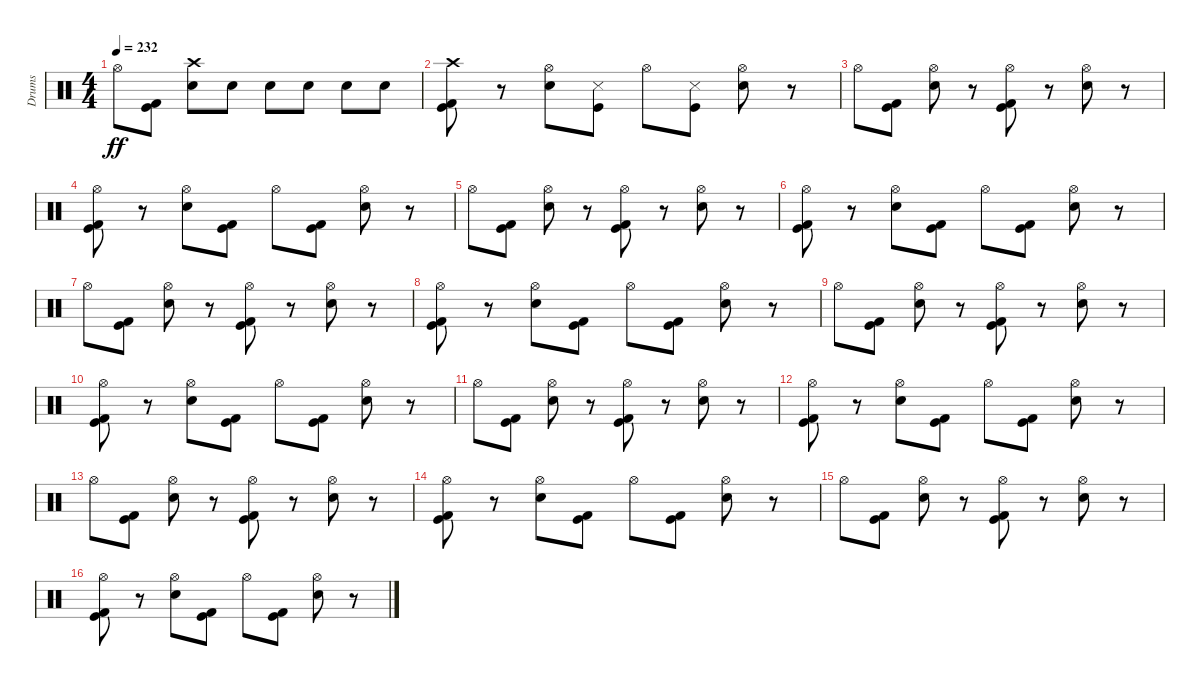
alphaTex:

\track ("Drums" "Drums") {instrument percussion}
\staff {score}
\articulation defaults
\ts (4 4)
\tempo 232
\clef neutral
\ks c "Hi-Hat (open)".8{dy ff}
("Kick (hit)" "Kick (hit) 2").8 ("Snare (hit) 2" "Crash high (hit)").8 "Snare (hit) 2".8 "Snare (hit) 2".8 "Snare (hit) 2".8 "Snare (hit) 2".8 "Snare (hit) 2".8 |
("Kick (hit)" "Kick (hit) 2" "Crash high (hit)").8 r.8 ("Snare (hit) 2" "Hi-Hat (open)").8 ("Kick (hit)" "Snare (side stick) 3").8 "Hi-Hat (open)".8 ("Kick (hit)" "Snare (side stick) 3").8 ("Snare (hit) 2" "Hi-Hat (open)").8 r.8 |
"Hi-Hat (open)".8 ("Kick (hit)" "Kick (hit) 2").8 ("Snare (hit) 2" "Hi-Hat (open)").8 r.8 ("Kick (hit)" "Kick (hit) 2" "Hi-Hat (open)").8 r.8 ("Snare (hit) 2" "Hi-Hat (open)").8 r.8 |
("Kick (hit)" "Kick (hit) 2" "Hi-Hat (open)").8 r.8 ("Snare (hit) 2" "Hi-Hat (open)").8 ("Kick (hit)" "Kick (hit) 2").8 "Hi-Hat (open)".8 ("Kick (hit)" "Kick (hit) 2").8 ("Snare (hit) 2" "Hi-Hat (open)").8 r.8 |
"Hi-Hat (open)".8 ("Kick (hit)" "Kick (hit) 2").8 ("Snare (hit) 2" "Hi-Hat (open)").8 r.8 ("Kick (hit)" "Kick (hit) 2" "Hi-Hat (open)").8 r.8 ("Snare (hit) 2" "Hi-Hat (open)").8 r.8 |
("Kick (hit)" "Kick (hit) 2" "Hi-Hat (open)").8 r.8 ("Snare (hit) 2" "Hi-Hat (open)").8 ("Kick (hit)" "Kick (hit) 2").8 "Hi-Hat (open)".8 ("Kick (hit)" "Kick (hit) 2").8 ("Snare (hit) 2" "Hi-Hat (open)").8 r.8 |
"Hi-Hat (open)".8 ("Kick (hit)" "Kick (hit) 2").8 ("Snare (hit) 2" "Hi-Hat (open)").8 r.8 ("Kick (hit)" "Kick (hit) 2" "Hi-Hat (open)").8 r.8 ("Snare (hit) 2" "Hi-Hat (open)").8 r.8 |
("Kick (hit)" "Kick (hit) 2" "Hi-Hat (open)").8 r.8 ("Snare (hit) 2" "Hi-Hat (open)").8 ("Kick (hit)" "Kick (hit) 2").8 "Hi-Hat (open)".8 ("Kick (hit)" "Kick (hit) 2").8 ("Snare (hit) 2" "Hi-Hat (open)").8 r.8 |
"Hi-Hat (open)".8 ("Kick (hit)" "Kick (hit) 2").8 ("Snare (hit) 2" "Hi-Hat (open)").8 r.8 ("Kick (hit)" "Kick (hit) 2" "Hi-Hat (open)").8 r.8 ("Snare (hit) 2" "Hi-Hat (open)").8 r.8 |
("Kick (hit)" "Kick (hit) 2" "Hi-Hat (open)").8 r.8 ("Snare (hit) 2" "Hi-Hat (open)").8 ("Kick (hit)" "Kick (hit) 2").8 "Hi-Hat (open)".8 ("Kick (hit)" "Kick (hit) 2").8 ("Snare (hit) 2" "Hi-Hat (open)").8 r.8 |
"Hi-Hat (open)".8 ("Kick (hit)" "Kick (hit) 2").8 ("Snare (hit) 2" "Hi-Hat (open)").8 r.8 ("Kick (hit)" "Kick (hit) 2" "Hi-Hat (open)").8 r.8 ("Snare (hit) 2" "Hi-Hat (open)").8 r.8 |
("Kick (hit)" "Kick (hit) 2" "Hi-Hat (open)").8 r.8 ("Snare (hit) 2" "Hi-Hat (open)").8 ("Kick (hit)" "Kick (hit) 2").8 "Hi-Hat (open)".8 ("Kick (hit)" "Kick (hit) 2").8 ("Snare (hit) 2" "Hi-Hat (open)").8 r.8 |
"Hi-Hat (open)".8 ("Kick (hit)" "Kick (hit) 2").8 ("Snare (hit) 2" "Hi-Hat (open)").8 r.8 ("Kick (hit)" "Kick (hit) 2" "Hi-Hat (open)").8 r.8 ("Snare (hit) 2" "Hi-Hat (open)").8 r.8 |
("Kick (hit)" "Kick (hit) 2" "Hi-Hat (open)").8 r.8 ("Snare (hit) 2" "Hi-Hat (open)").8 ("Kick (hit)" "Kick (hit) 2").8 "Hi-Hat (open)".8 ("Kick (hit)" "Kick (hit) 2").8 ("Snare (hit) 2" "Hi-Hat (open)").8 r.8 |
"Hi-Hat (open)".8 ("Kick (hit)" "Kick (hit) 2").8 ("Snare (hit) 2" "Hi-Hat (open)").8 r.8 ("Kick (hit)" "Kick (hit) 2" "Hi-Hat (open)").8 r.8 ("Snare (hit) 2" "Hi-Hat (open)").8 r.8 |
("Kick (hit)" "Kick (hit) 2" "Hi-Hat (open)").8 r.8 ("Snare (hit) 2" "Hi-Hat (open)").8 ("Kick (hit)" "Kick (hit) 2").8 "Hi-Hat (open)".8 ("Kick (hit)" "Kick (hit) 2").8 ("Snare (hit) 2" "Hi-Hat (open)").8 r.8
